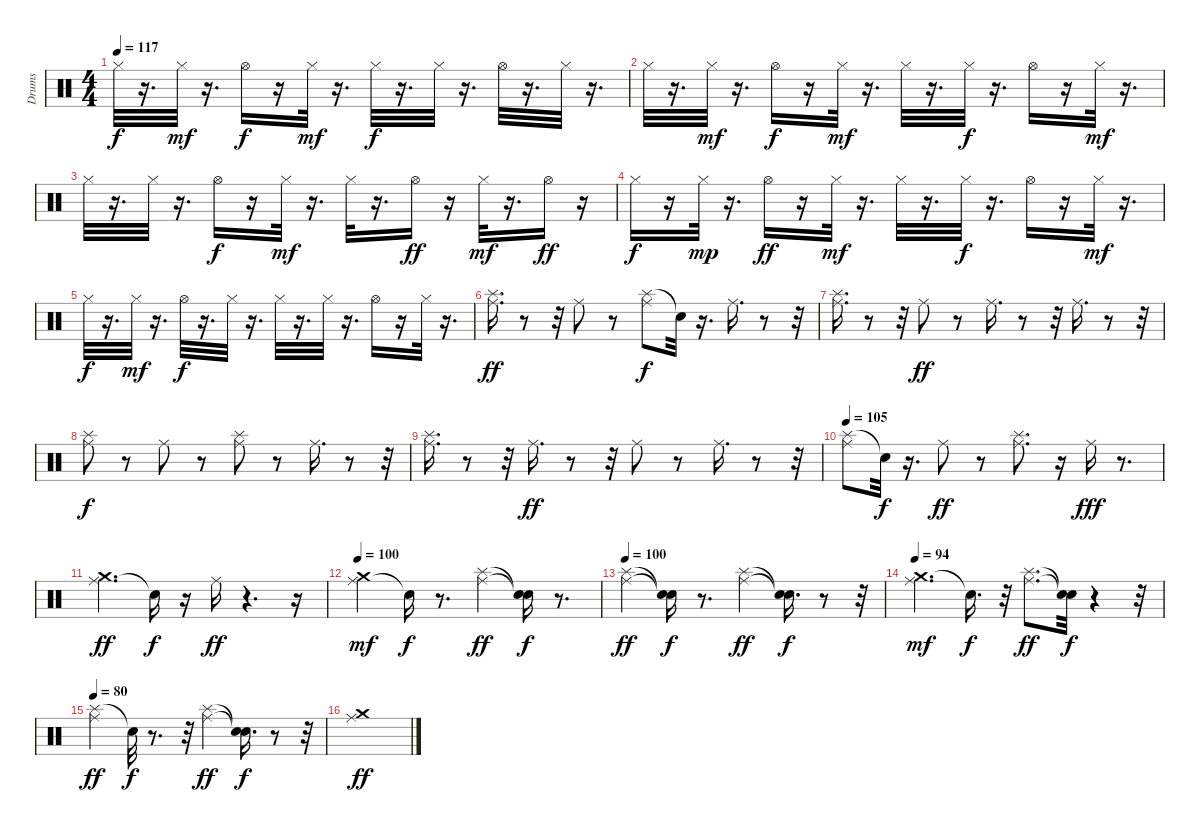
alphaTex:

\track ("Drums" "Drums") {instrument percussion}
\staff {score}
\articulation defaults
\ts (4 4)
\tempo 117
\clef neutral
\ks c "Hi-Hat (closed)".32{dy f}
r.16{d} "Hi-Hat (closed)".32{dy mf} r.16{d} "Hi-Hat (open)".16{dy f} r.16 "Hi-Hat (closed)".32{dy mf} r.16{d} "Hi-Hat (closed)".32{dy f} r.16{d} "Hi-Hat (closed)".32 r.16{d} "Hi-Hat (open)".32 r.16{d} "Hi-Hat (closed)".32 r.16{d} |
"Hi-Hat (closed)".32 r.16{d} "Hi-Hat (closed)".32{dy mf} r.16{d} "Hi-Hat (open)".16{dy f} r.16 "Hi-Hat (closed)".32{dy mf} r.16{d} "Hi-Hat (closed)".32 r.16{d} "Hi-Hat (closed)".32{dy f} r.16{d} "Hi-Hat (open)".16 r.16 "Hi-Hat (closed)".32{dy mf} r.16{d} |
"Hi-Hat (closed)".32 r.16{d} "Hi-Hat (closed)".32 r.16{d} "Hi-Hat (open)".16{dy f} r.16 "Hi-Hat (closed)".32{dy mf} r.16{d} "Hi-Hat (closed)".32 r.16{d} "Hi-Hat (open)".16{dy ff} r.16 "Hi-Hat (closed)".32{dy mf} r.16{d} "Hi-Hat (open)".16{dy ff} r.16 |
"Hi-Hat (closed)".16{dy f} r.16 "Hi-Hat (closed)".32{dy mp} r.16{d} "Hi-Hat (open)".16{dy ff} r.16 "Hi-Hat (closed)".32{dy mf} r.16{d} "Hi-Hat (closed)".32 r.16{d} "Hi-Hat (closed)".32{dy f} r.16{d} "Hi-Hat (open)".16 r.16 "Hi-Hat (closed)".32{dy mf} r.16{d} |
"Hi-Hat (closed)".32{dy f} r.16{d} "Hi-Hat (closed)".32{dy mf} r.16{d} "Hi-Hat (open)".32{dy f} r.16{d} "Hi-Hat (closed)".32 r.16{d} "Hi-Hat (closed)".32 r.16{d} "Hi-Hat (closed)".32 r.16{d} "Hi-Hat (open)".16 r.16 "Hi-Hat (closed)".32 r.16{d} |
("Splash (hit)" "Ride (middle)").16{d dy ff} r.8 r.32 "Ride (middle)".8 r.8 ("Splash (hit)" "Ride (middle)").8{dy f} "Snare (hit)"{t}.32 r.16{d} "Ride (middle)".16{d} r.8 r.32 |
("Splash (hit)" "Ride (middle)").16{d} r.8 r.32 "Ride (middle)".8{dy ff} r.8 "Ride (middle)".16{d} r.8 r.32 "Ride (middle)".16{d} r.8 r.32 |
("Splash (hit)" "Ride (middle)").8{dy f} r.8 "Ride (middle)".8 r.8 ("Ride (middle)" "Splash (hit)").8 r.8 "Ride (middle)".16{d} r.8 r.32 |
("Splash (hit)" "Ride (middle)").16{d} r.8 r.32 "Ride (middle)".16{d dy ff} r.8 r.32 "Ride (middle)".8 r.8 "Ride (middle)".16{d} r.8 r.32 |
\tempo 105
("Splash (hit)" "Ride (middle)").8 "Snare (hit)"{t}.32{dy f} r.16{d} "Ride (middle)".8{dy ff} r.8 ("Splash (hit)" "Ride (middle)").8{d} r.16 "Ride (middle)".16{dy fff} r.8{d} |
("Ride (middle)" "Crash medium (hit)").4{d dy ff} "Snare (hit)"{t}.16{dy f} r.16 "Ride (middle)".16{dy ff} r.4{d} r.16 |
\tempo 100
("Ride (middle)" "Crash medium (hit)").4{dy mf} "Snare (hit)"{t}.16{dy f} r.8{d} ("Splash (hit)" "Ride (middle)").4{dy ff} ("Snare (hit)"{t} "Snare (hit)"{t}).16{dy f} r.8{d} |
\tempo 100
("Splash (hit)" "Ride (middle)").4{dy ff} ("Snare (hit)"{t} "Snare (hit)"{t}).16{dy f} r.8{d} ("Ride (middle)" "Splash (hit)").4{dy ff} ("Snare (hit)"{t} "Snare (hit)"{t}).16{d dy f} r.8 r.32 |
\tempo 94
("Crash medium (hit)" "Ride (middle)").4{d dy mf} "Snare (hit)"{t}.16{d dy f} r.32 ("Splash (hit)" "Ride (middle)").8{d dy ff} ("Snare (hit)"{t} "Snare (hit)"{t}).32{dy f} r.4 r.32 |
\tempo 80
("Splash (hit)" "Ride (middle)").4{dy ff} "Snare (hit)"{t}.32{dy f} r.8{d} r.32 ("Splash (hit)" "Ride (middle)").4{dy ff} ("Snare (hit)"{t} "Snare (hit)"{t}).16{d dy f} r.8 r.32 |
("Crash medium (hit)" "Ride (middle)").1{dy ff}
